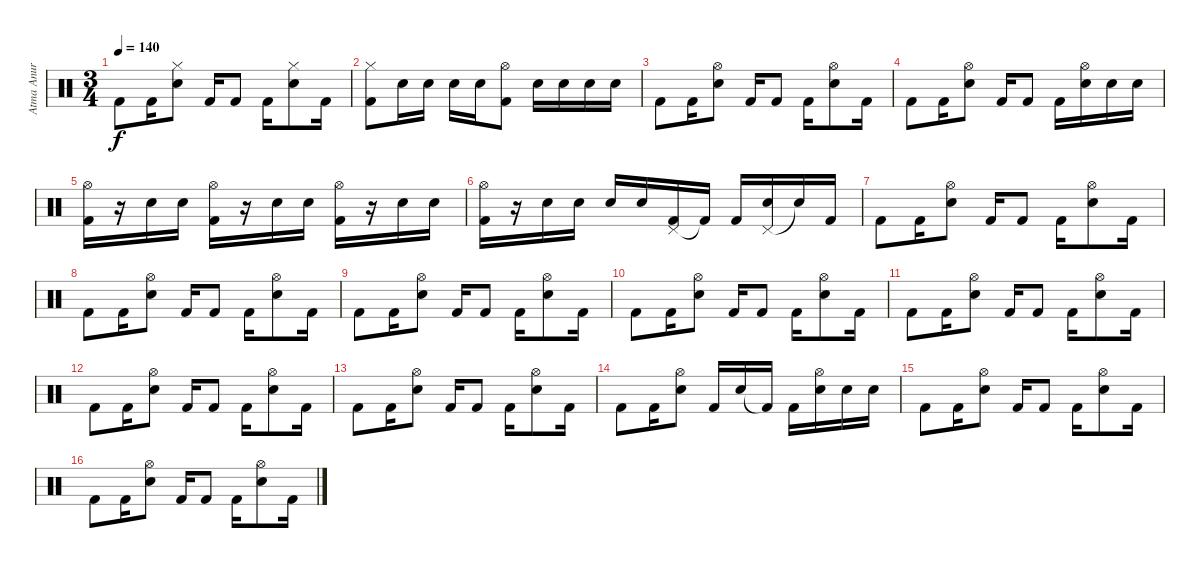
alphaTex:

\track ("Atma Anur" "Atma Anur") {instrument percussion}
\staff {score}
\articulation defaults
\ts (3 4)
\tempo 140
\clef neutral
\ks c "Kick (hit) 2".8{dy f} "Kick (hit) 2".16
("Hi-Hat (closed)" "Snare (hit) 2").8 "Kick (hit) 2".16 "Kick (hit) 2".8 "Kick (hit) 2".16 ("Hi-Hat (closed)" "Snare (hit) 2").8 "Kick (hit) 2".16 |
("Hi-Hat (closed)" "Kick (hit) 2").8 "Snare (hit) 2".16 "Snare (hit) 2".16 "Snare (hit) 2".16 "Snare (hit) 2".16 ("Hi-Hat (open)" "Kick (hit) 2").8 "Snare (hit) 2".16 "Snare (hit) 2".16 "Snare (hit) 2".16 "Snare (hit) 2".16 |
"Kick (hit) 2".8 "Kick (hit) 2".16 ("Hi-Hat (open)" "Snare (hit) 2").8 "Kick (hit) 2".16 "Kick (hit) 2".8 "Kick (hit) 2".16 ("Hi-Hat (open)" "Snare (hit) 2").8 "Kick (hit) 2".16 |
"Kick (hit) 2".8 "Kick (hit) 2".16 ("Hi-Hat (open)" "Snare (hit) 2").8 "Kick (hit) 2".16 "Kick (hit) 2".8 "Kick (hit) 2".16 ("Hi-Hat (open)" "Snare (hit) 2").16 "Snare (hit) 2".16 "Snare (hit) 2".16 |
("Hi-Hat (open)" "Kick (hit) 2").16 r.16 "Snare (hit) 2".16 "Snare (hit) 2".16 ("Hi-Hat (open)" "Kick (hit) 2").16 r.16 "Snare (hit) 2".16 "Snare (hit) 2".16 ("Hi-Hat (open)" "Kick (hit) 2").16 r.16 "Snare (hit) 2".16 "Snare (hit) 2".16 |
("Hi-Hat (open)" "Kick (hit) 2").16 r.16 "Snare (hit) 2".16 "Snare (hit) 2".16 "Snare (hit) 2".16 "Snare (hit) 2".16 ("Pedal Hi-Hat (hit)" "Kick (hit) 2").16 "Kick (hit) 2"{t}.16 "Kick (hit) 2".16 ("Pedal Hi-Hat (hit)" "Snare (hit) 2").16 "Snare (hit) 2"{t}.16 "Kick (hit) 2".16 |
"Kick (hit) 2".8 "Kick (hit) 2".16 ("Hi-Hat (open)" "Snare (hit) 2").8 "Kick (hit) 2".16 "Kick (hit) 2".8 "Kick (hit) 2".16 ("Hi-Hat (open)" "Snare (hit) 2").8 "Kick (hit) 2".16 |
"Kick (hit) 2".8 "Kick (hit) 2".16 ("Hi-Hat (open)" "Snare (hit) 2").8 "Kick (hit) 2".16 "Kick (hit) 2".8 "Kick (hit) 2".16 ("Hi-Hat (open)" "Snare (hit) 2").8 "Kick (hit) 2".16 |
"Kick (hit) 2".8 "Kick (hit) 2".16 ("Hi-Hat (open)" "Snare (hit) 2").8 "Kick (hit) 2".16 "Kick (hit) 2".8 "Kick (hit) 2".16 ("Hi-Hat (open)" "Snare (hit) 2").8 "Kick (hit) 2".16 |
"Kick (hit) 2".8 "Kick (hit) 2".16 ("Hi-Hat (open)" "Snare (hit) 2").8 "Kick (hit) 2".16 "Kick (hit) 2".8 "Kick (hit) 2".16 ("Hi-Hat (open)" "Snare (hit) 2").8 "Kick (hit) 2".16 |
"Kick (hit) 2".8 "Kick (hit) 2".16 ("Hi-Hat (open)" "Snare (hit) 2").8 "Kick (hit) 2".16 "Kick (hit) 2".8 "Kick (hit) 2".16 ("Hi-Hat (open)" "Snare (hit) 2").8 "Kick (hit) 2".16 |
"Kick (hit) 2".8 "Kick (hit) 2".16 ("Hi-Hat (open)" "Snare (hit) 2").8 "Kick (hit) 2".16 "Kick (hit) 2".8 "Kick (hit) 2".16 ("Hi-Hat (open)" "Snare (hit) 2").8 "Kick (hit) 2".16 |
"Kick (hit) 2".8 "Kick (hit) 2".16 ("Hi-Hat (open)" "Snare (hit) 2").8 "Kick (hit) 2".16 "Kick (hit) 2".8 "Kick (hit) 2".16 ("Hi-Hat (open)" "Snare (hit) 2").8 "Kick (hit) 2".16 |
"Kick (hit) 2".8 "Kick (hit) 2".16 ("Hi-Hat (open)" "Snare (hit) 2").8 "Kick (hit) 2".16 "Snare (hit) 2".16 "Kick (hit) 2"{t}.16 "Kick (hit) 2".16 ("Hi-Hat (open)" "Snare (hit) 2").16 "Snare (hit) 2".16 "Snare (hit) 2".16 |
"Kick (hit) 2".8 "Kick (hit) 2".16 ("Hi-Hat (open)" "Snare (hit) 2").8 "Kick (hit) 2".16 "Kick (hit) 2".8 "Kick (hit) 2".16 ("Hi-Hat (open)" "Snare (hit) 2").8 "Kick (hit) 2".16 |
"Kick (hit) 2".8 "Kick (hit) 2".16 ("Hi-Hat (open)" "Snare (hit) 2").8 "Kick (hit) 2".16 "Kick (hit) 2".8 "Kick (hit) 2".16 ("Hi-Hat (open)" "Snare (hit) 2").8 "Kick (hit) 2".16
